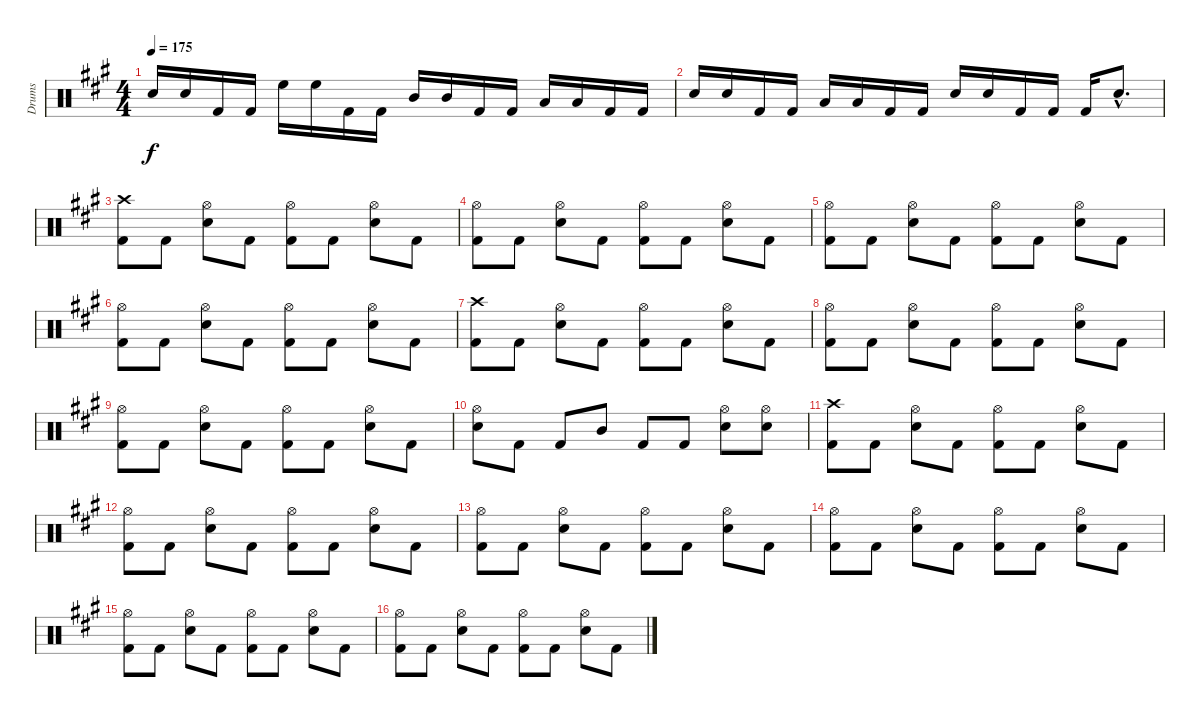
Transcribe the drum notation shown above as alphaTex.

\track ("Drums" "Drums") {instrument percussion}
\staff {score}
\articulation defaults
\ts (4 4)
\tempo 175
\clef neutral
\ks a "Snare (hit) 2".16{dy f} "Snare (hit) 2".16 "Kick (hit) 2".16 "Kick (hit) 2".16 "High Floor Tom (hit)".16 "High Floor Tom (hit)".16 "Kick (hit) 2".16 "Kick (hit) 2".16 "Mid Tom (hit)".16 "Mid Tom (hit)".16 "Kick (hit) 2".16 "Kick (hit) 2".16 "Low Tom (hit)".16 "Low Tom (hit)".16 "Kick (hit) 2".16 "Kick (hit) 2".16
|
"Snare (hit) 2".16 "Snare (hit) 2".16 "Kick (hit) 2".16 "Kick (hit) 2".16 "Low Tom (hit)".16 "Low Tom (hit)".16 "Kick (hit) 2".16 "Kick (hit) 2".16 "Snare (hit) 2".16 "Snare (hit) 2".16 "Kick (hit) 2".16 "Kick (hit) 2".16 "Kick (hit) 2".16 "Snare (hit) 2"{hac}.8{d} |
("Crash high (hit)" "Kick (hit) 2").8 "Kick (hit) 2".8 ("Hi-Hat (open)" "Snare (hit) 2").8 "Kick (hit) 2".8 ("Hi-Hat (open)" "Kick (hit) 2").8 "Kick (hit) 2".8 ("Hi-Hat (open)" "Snare (hit) 2").8 "Kick (hit) 2".8 |
("Hi-Hat (open)" "Kick (hit) 2").8 "Kick (hit) 2".8 ("Hi-Hat (open)" "Snare (hit) 2").8 "Kick (hit) 2".8 ("Hi-Hat (open)" "Kick (hit) 2").8 "Kick (hit) 2".8 ("Hi-Hat (open)" "Snare (hit) 2").8 "Kick (hit) 2".8 |
("Hi-Hat (open)" "Kick (hit) 2").8 "Kick (hit) 2".8 ("Hi-Hat (open)" "Snare (hit) 2").8 "Kick (hit) 2".8 ("Hi-Hat (open)" "Kick (hit) 2").8 "Kick (hit) 2".8 ("Hi-Hat (open)" "Snare (hit) 2").8 "Kick (hit) 2".8 |
("Hi-Hat (open)" "Kick (hit) 2").8 "Kick (hit) 2".8 ("Hi-Hat (open)" "Snare (hit) 2").8 "Kick (hit) 2".8 ("Hi-Hat (open)" "Kick (hit) 2").8 "Kick (hit) 2".8 ("Hi-Hat (open)" "Snare (hit) 2").8 "Kick (hit) 2".8 |
("Crash high (hit)" "Kick (hit) 2").8 "Kick (hit) 2".8 ("Hi-Hat (open)" "Snare (hit) 2").8 "Kick (hit) 2".8 ("Hi-Hat (open)" "Kick (hit) 2").8 "Kick (hit) 2".8 ("Hi-Hat (open)" "Snare (hit) 2").8 "Kick (hit) 2".8 |
("Hi-Hat (open)" "Kick (hit) 2").8 "Kick (hit) 2".8 ("Hi-Hat (open)" "Snare (hit) 2").8 "Kick (hit) 2".8 ("Hi-Hat (open)" "Kick (hit) 2").8 "Kick (hit) 2".8 ("Hi-Hat (open)" "Snare (hit) 2").8 "Kick (hit) 2".8 |
("Hi-Hat (open)" "Kick (hit) 2").8 "Kick (hit) 2".8 ("Hi-Hat (open)" "Snare (hit) 2").8 "Kick (hit) 2".8 ("Hi-Hat (open)" "Kick (hit) 2").8 "Kick (hit) 2".8 ("Hi-Hat (open)" "Snare (hit) 2").8 "Kick (hit) 2".8 |
("Hi-Hat (open)" "Snare (hit) 2").8 "Kick (hit) 2".8 "Kick (hit) 2".8 "Mid Tom (hit)".8 "Kick (hit) 2".8 "Kick (hit) 2".8 ("Hi-Hat (open)" "Snare (hit) 2").8 ("Hi-Hat (open)" "Snare (hit) 2").8 |
("Crash high (hit)" "Kick (hit) 2").8 "Kick (hit) 2".8 ("Hi-Hat (open)" "Snare (hit) 2").8 "Kick (hit) 2".8 ("Hi-Hat (open)" "Kick (hit) 2").8 "Kick (hit) 2".8 ("Hi-Hat (open)" "Snare (hit) 2").8 "Kick (hit) 2".8 |
("Hi-Hat (open)" "Kick (hit) 2").8 "Kick (hit) 2".8 ("Hi-Hat (open)" "Snare (hit) 2").8 "Kick (hit) 2".8 ("Hi-Hat (open)" "Kick (hit) 2").8 "Kick (hit) 2".8 ("Hi-Hat (open)" "Snare (hit) 2").8 "Kick (hit) 2".8 |
("Hi-Hat (open)" "Kick (hit) 2").8 "Kick (hit) 2".8 ("Hi-Hat (open)" "Snare (hit) 2").8 "Kick (hit) 2".8 ("Hi-Hat (open)" "Kick (hit) 2").8 "Kick (hit) 2".8 ("Hi-Hat (open)" "Snare (hit) 2").8 "Kick (hit) 2".8 |
("Hi-Hat (open)" "Kick (hit) 2").8 "Kick (hit) 2".8 ("Hi-Hat (open)" "Snare (hit) 2").8 "Kick (hit) 2".8 ("Hi-Hat (open)" "Kick (hit) 2").8 "Kick (hit) 2".8 ("Hi-Hat (open)" "Snare (hit) 2").8 "Kick (hit) 2".8 |
("Hi-Hat (open)" "Kick (hit) 2").8 "Kick (hit) 2".8 ("Hi-Hat (open)" "Snare (hit) 2").8 "Kick (hit) 2".8 ("Hi-Hat (open)" "Kick (hit) 2").8 "Kick (hit) 2".8 ("Hi-Hat (open)" "Snare (hit) 2").8 "Kick (hit) 2".8 |
("Hi-Hat (open)" "Kick (hit) 2").8 "Kick (hit) 2".8 ("Hi-Hat (open)" "Snare (hit) 2").8 "Kick (hit) 2".8 ("Hi-Hat (open)" "Kick (hit) 2").8 "Kick (hit) 2".8 ("Hi-Hat (open)" "Snare (hit) 2").8 "Kick (hit) 2".8
